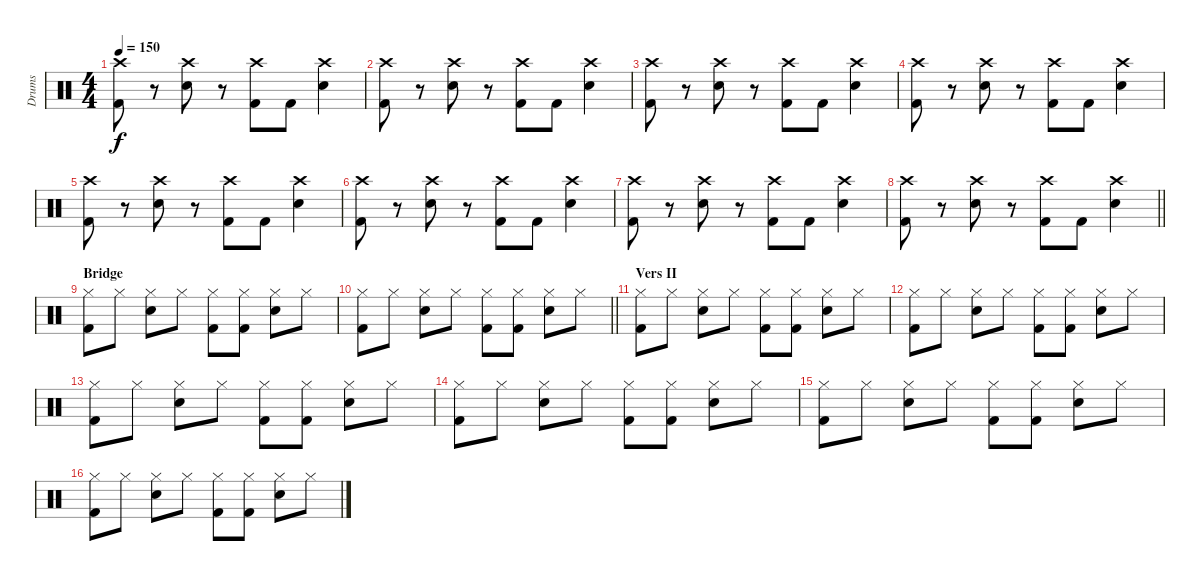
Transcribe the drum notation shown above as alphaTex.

\track ("Drums" "Drums") {instrument percussion}
\staff {score}
\articulation defaults
\ts (4 4)
\tempo 150
\clef neutral
\ks c
("Crash high (hit)" "Kick (hit) 2").8{dy f} r.8 ("Crash high (hit)" "Snare (hit) 2").8 r.8 ("Crash high (hit)" "Kick (hit) 2").8 "Kick (hit) 2".8 ("Crash high (hit)" "Snare (hit) 2").4 |
("Crash high (hit)" "Kick (hit) 2").8 r.8 ("Crash high (hit)" "Snare (hit) 2").8 r.8 ("Crash high (hit)" "Kick (hit) 2").8 "Kick (hit) 2".8 ("Crash high (hit)" "Snare (hit) 2").4 |
("Crash high (hit)" "Kick (hit) 2").8 r.8 ("Crash high (hit)" "Snare (hit) 2").8 r.8 ("Crash high (hit)" "Kick (hit) 2").8 "Kick (hit) 2".8 ("Crash high (hit)" "Snare (hit) 2").4 |
("Crash high (hit)" "Kick (hit) 2").8 r.8 ("Crash high (hit)" "Snare (hit) 2").8 r.8 ("Crash high (hit)" "Kick (hit) 2").8 "Kick (hit) 2".8 ("Crash high (hit)" "Snare (hit) 2").4 |
("Crash high (hit)" "Kick (hit) 2").8 r.8 ("Crash high (hit)" "Snare (hit) 2").8 r.8 ("Crash high (hit)" "Kick (hit) 2").8 "Kick (hit) 2".8 ("Crash high (hit)" "Snare (hit) 2").4 |
("Crash high (hit)" "Kick (hit) 2").8 r.8 ("Crash high (hit)" "Snare (hit) 2").8 r.8 ("Crash high (hit)" "Kick (hit) 2").8 "Kick (hit) 2".8 ("Crash high (hit)" "Snare (hit) 2").4 |
("Crash high (hit)" "Kick (hit) 2").8 r.8 ("Crash high (hit)" "Snare (hit) 2").8 r.8 ("Crash high (hit)" "Kick (hit) 2").8 "Kick (hit) 2".8 ("Crash high (hit)" "Snare (hit) 2").4 |
\barLineRight lightlight
("Crash high (hit)" "Kick (hit) 2").8 r.8 ("Crash high (hit)" "Snare (hit) 2").8 r.8 ("Crash high (hit)" "Kick (hit) 2").8 "Kick (hit) 2".8 ("Crash high (hit)" "Snare (hit) 2").4 |
\section ("" "Bridge")
("Hi-Hat (closed)" "Kick (hit) 2").8 "Hi-Hat (closed)".8 ("Hi-Hat (closed)" "Snare (hit) 2").8 "Hi-Hat (closed)".8 ("Hi-Hat (closed)" "Kick (hit) 2").8 ("Hi-Hat (closed)" "Kick (hit) 2").8 ("Hi-Hat (closed)" "Snare (hit) 2").8 "Hi-Hat (closed)".8 |
\barLineRight lightlight
("Hi-Hat (closed)" "Kick (hit) 2").8 "Hi-Hat (closed)".8 ("Hi-Hat (closed)" "Snare (hit) 2").8 "Hi-Hat (closed)".8 ("Hi-Hat (closed)" "Kick (hit) 2").8 ("Hi-Hat (closed)" "Kick (hit) 2").8 ("Hi-Hat (closed)" "Snare (hit) 2").8 "Hi-Hat (closed)".8 |
\section ("" "Vers II")
("Hi-Hat (closed)" "Kick (hit) 2").8 "Hi-Hat (closed)".8 ("Hi-Hat (closed)" "Snare (hit) 2").8 "Hi-Hat (closed)".8 ("Hi-Hat (closed)" "Kick (hit) 2").8 ("Hi-Hat (closed)" "Kick (hit) 2").8 ("Hi-Hat (closed)" "Snare (hit) 2").8 "Hi-Hat (closed)".8 |
("Hi-Hat (closed)" "Kick (hit) 2").8 "Hi-Hat (closed)".8 ("Hi-Hat (closed)" "Snare (hit) 2").8 "Hi-Hat (closed)".8 ("Hi-Hat (closed)" "Kick (hit) 2").8 ("Hi-Hat (closed)" "Kick (hit) 2").8 ("Hi-Hat (closed)" "Snare (hit) 2").8 "Hi-Hat (closed)".8 |
("Hi-Hat (closed)" "Kick (hit) 2").8 "Hi-Hat (closed)".8 ("Hi-Hat (closed)" "Snare (hit) 2").8 "Hi-Hat (closed)".8 ("Hi-Hat (closed)" "Kick (hit) 2").8 ("Hi-Hat (closed)" "Kick (hit) 2").8 ("Hi-Hat (closed)" "Snare (hit) 2").8 "Hi-Hat (closed)".8 |
("Hi-Hat (closed)" "Kick (hit) 2").8 "Hi-Hat (closed)".8 ("Hi-Hat (closed)" "Snare (hit) 2").8 "Hi-Hat (closed)".8 ("Hi-Hat (closed)" "Kick (hit) 2").8 ("Hi-Hat (closed)" "Kick (hit) 2").8 ("Hi-Hat (closed)" "Snare (hit) 2").8 "Hi-Hat (closed)".8 |
("Hi-Hat (closed)" "Kick (hit) 2").8 "Hi-Hat (closed)".8 ("Hi-Hat (closed)" "Snare (hit) 2").8 "Hi-Hat (closed)".8 ("Hi-Hat (closed)" "Kick (hit) 2").8 ("Hi-Hat (closed)" "Kick (hit) 2").8 ("Hi-Hat (closed)" "Snare (hit) 2").8 "Hi-Hat (closed)".8 |
("Hi-Hat (closed)" "Kick (hit) 2").8 "Hi-Hat (closed)".8 ("Hi-Hat (closed)" "Snare (hit) 2").8 "Hi-Hat (closed)".8 ("Hi-Hat (closed)" "Kick (hit) 2").8 ("Hi-Hat (closed)" "Kick (hit) 2").8 ("Hi-Hat (closed)" "Snare (hit) 2").8 "Hi-Hat (closed)".8
